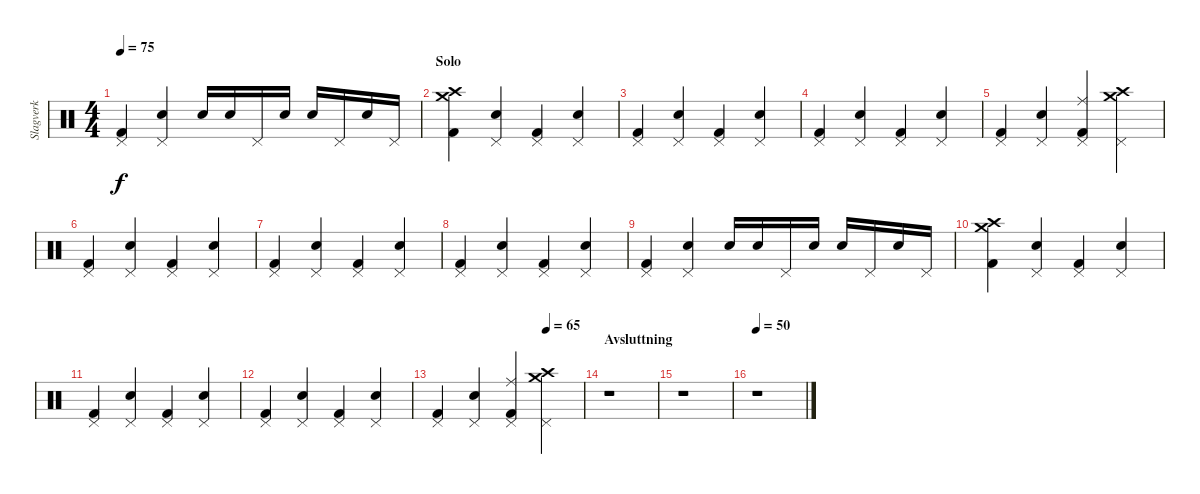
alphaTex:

\track ("Slagverk" "Slagverk") {instrument percussion}
\staff {score}
\articulation defaults
\ts (4 4)
\tempo 75
\clef neutral
\ks c
("Pedal Hi-Hat (hit)" "Kick (hit) 2").4{dy f} ("Pedal Hi-Hat (hit)" "Snare (hit) 2").4 "Snare (hit) 2".16 "Snare (hit) 2".16 "Pedal Hi-Hat (hit)".16 "Snare (hit) 2".16 "Snare (hit) 2".16 "Pedal Hi-Hat (hit)".16 "Snare (hit) 2".16 "Pedal Hi-Hat (hit)".16 |
\section ("" "Solo")
("Crash medium (hit)" "Crash high (hit)" "Kick (hit) 2").4 ("Pedal Hi-Hat (hit)" "Snare (hit) 2").4 ("Pedal Hi-Hat (hit)" "Kick (hit) 2").4 ("Pedal Hi-Hat (hit)" "Snare (hit) 2").4 |
("Pedal Hi-Hat (hit)" "Kick (hit) 2").4 ("Pedal Hi-Hat (hit)" "Snare (hit) 2").4 ("Pedal Hi-Hat (hit)" "Kick (hit) 2").4 ("Pedal Hi-Hat (hit)" "Snare (hit) 2").4 |
("Pedal Hi-Hat (hit)" "Kick (hit) 2").4 ("Pedal Hi-Hat (hit)" "Snare (hit) 2").4 ("Pedal Hi-Hat (hit)" "Kick (hit) 2").4 ("Pedal Hi-Hat (hit)" "Snare (hit) 2").4 |
("Pedal Hi-Hat (hit)" "Kick (hit) 2").4 ("Pedal Hi-Hat (hit)" "Snare (hit) 2").4 ("Pedal Hi-Hat (hit)" "Kick (hit) 2" "Ride (middle)").4 ("Pedal Hi-Hat (hit)" "Crash high (hit)" "Crash medium (hit)").4 |
("Pedal Hi-Hat (hit)" "Kick (hit) 2").4 ("Pedal Hi-Hat (hit)" "Snare (hit) 2").4 ("Pedal Hi-Hat (hit)" "Kick (hit) 2").4 ("Pedal Hi-Hat (hit)" "Snare (hit) 2").4 |
("Pedal Hi-Hat (hit)" "Kick (hit) 2").4 ("Pedal Hi-Hat (hit)" "Snare (hit) 2").4 ("Pedal Hi-Hat (hit)" "Kick (hit) 2").4 ("Pedal Hi-Hat (hit)" "Snare (hit) 2").4 |
("Pedal Hi-Hat (hit)" "Kick (hit) 2").4 ("Pedal Hi-Hat (hit)" "Snare (hit) 2").4 ("Pedal Hi-Hat (hit)" "Kick (hit) 2").4 ("Pedal Hi-Hat (hit)" "Snare (hit) 2").4 |
("Pedal Hi-Hat (hit)" "Kick (hit) 2").4 ("Pedal Hi-Hat (hit)" "Snare (hit) 2").4 "Snare (hit) 2".16 "Snare (hit) 2".16 "Pedal Hi-Hat (hit)".16 "Snare (hit) 2".16 "Snare (hit) 2".16 "Pedal Hi-Hat (hit)".16 "Snare (hit) 2".16 "Pedal Hi-Hat (hit)".16 |
("Crash medium (hit)" "Crash high (hit)" "Kick (hit) 2").4 ("Pedal Hi-Hat (hit)" "Snare (hit) 2").4 ("Pedal Hi-Hat (hit)" "Kick (hit) 2").4 ("Pedal Hi-Hat (hit)" "Snare (hit) 2").4 |
("Pedal Hi-Hat (hit)" "Kick (hit) 2").4 ("Pedal Hi-Hat (hit)" "Snare (hit) 2").4 ("Pedal Hi-Hat (hit)" "Kick (hit) 2").4 ("Pedal Hi-Hat (hit)" "Snare (hit) 2").4 |
("Pedal Hi-Hat (hit)" "Kick (hit) 2").4 ("Pedal Hi-Hat (hit)" "Snare (hit) 2").4 ("Pedal Hi-Hat (hit)" "Kick (hit) 2").4 ("Pedal Hi-Hat (hit)" "Snare (hit) 2").4 |
\tempo (65 0.75)
("Pedal Hi-Hat (hit)" "Kick (hit) 2").4 ("Pedal Hi-Hat (hit)" "Snare (hit) 2").4 ("Pedal Hi-Hat (hit)" "Kick (hit) 2" "Ride (middle)").4 ("Pedal Hi-Hat (hit)" "Crash high (hit)" "Crash medium (hit)").4 |
\section ("" "Avsluttning")
r.1 |
r.1 |
\tempo 50
r.1
